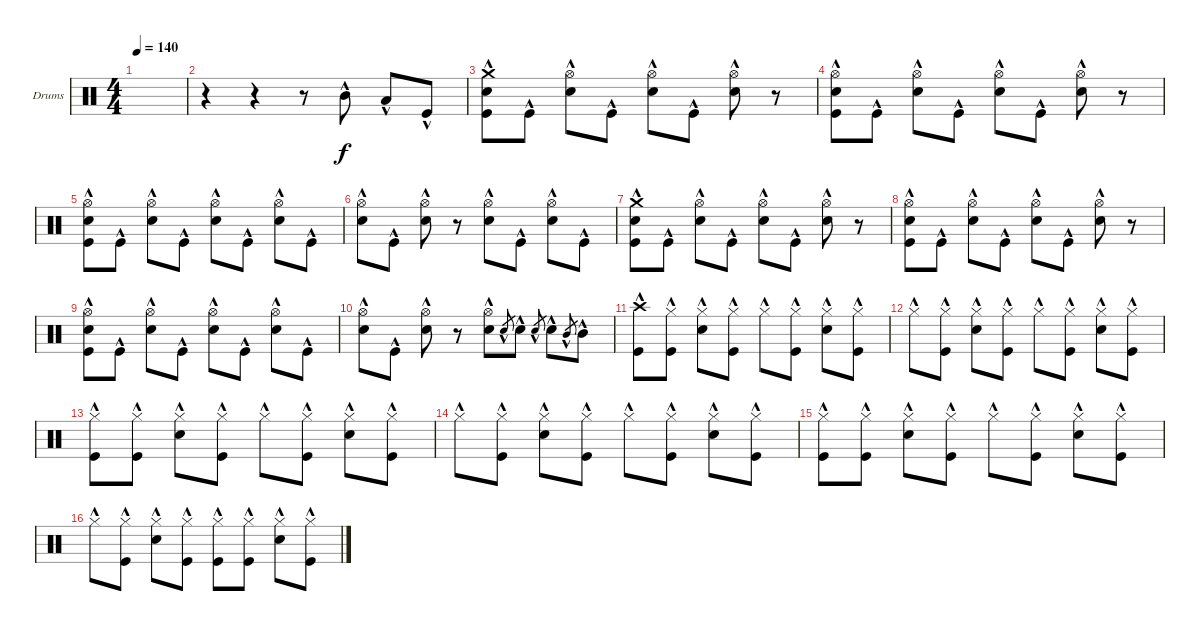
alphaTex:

\defaultSystemsLayout 4
\bracketExtendMode groupsimilarinstruments
\firstSystemTrackNameOrientation horizontal
\otherSystemsTrackNameOrientation horizontal
\track ("Drumkit" "Drums") {instrument percussion}
\staff {score}
\articulation defaults
\ts (4 4)
\tempo 140
\clef neutral
\ks c
|
r.4 r.4 r.8 "Mid Tom (hit)"{hac}.8 "Low Tom (hit)"{hac}.8 "Kick (hit)"{hac}.8 |
("Kick (hit)"{hac} "Snare (hit) 2"{hac} "Crash medium (hit)"{hac}).8 "Kick (hit)"{hac}.8 ("Snare (hit) 2"{hac} "Hi-Hat (open)"{hac}).8 "Kick (hit)"{hac}.8 ("Snare (hit) 2"{hac} "Hi-Hat (open)"{hac}).8 "Kick (hit)"{hac}.8 ("Snare (hit) 2"{hac} "Hi-Hat (open)"{hac}).8 r.8 |
("Kick (hit)"{hac} "Snare (hit) 2"{hac} "Hi-Hat (open)"{hac}).8 "Kick (hit)"{hac}.8 ("Snare (hit) 2"{hac} "Hi-Hat (open)"{hac}).8 "Kick (hit)"{hac}.8 ("Snare (hit) 2"{hac} "Hi-Hat (open)"{hac}).8 "Kick (hit)"{hac}.8 ("Snare (hit) 2"{hac} "Hi-Hat (open)"{hac}).8 r.8 |
("Kick (hit)"{hac} "Snare (hit) 2"{hac} "Hi-Hat (open)"{hac}).8 "Kick (hit)"{hac}.8 ("Snare (hit) 2"{hac} "Hi-Hat (open)"{hac}).8 "Kick (hit)"{hac}.8 ("Snare (hit) 2"{hac} "Hi-Hat (open)"{hac}).8 "Kick (hit)"{hac}.8 ("Snare (hit) 2"{hac} "Hi-Hat (open)"{hac}).8 "Kick (hit)"{hac}.8 |
("Snare (hit) 2"{hac} "Hi-Hat (open)"{hac}).8 "Kick (hit)"{hac}.8 ("Snare (hit) 2"{hac} "Hi-Hat (open)"{hac}).8 r.8 ("Snare (hit) 2"{hac} "Hi-Hat (open)"{hac}).8 "Kick (hit)"{hac}.8 ("Snare (hit) 2"{hac} "Hi-Hat (open)"{hac}).8 "Kick (hit)"{hac}.8 |
("Kick (hit)"{hac} "Snare (hit) 2"{hac} "Crash medium (hit)"{hac}).8 "Kick (hit)"{hac}.8 ("Snare (hit) 2"{hac} "Hi-Hat (open)"{hac}).8 "Kick (hit)"{hac}.8 ("Snare (hit) 2"{hac} "Hi-Hat (open)"{hac}).8 "Kick (hit)"{hac}.8 ("Snare (hit) 2"{hac} "Hi-Hat (open)"{hac}).8 r.8 |
("Kick (hit)"{hac} "Snare (hit) 2"{hac} "Hi-Hat (open)"{hac}).8 "Kick (hit)"{hac}.8 ("Snare (hit) 2"{hac} "Hi-Hat (open)"{hac}).8 "Kick (hit)"{hac}.8 ("Snare (hit) 2"{hac} "Hi-Hat (open)"{hac}).8 "Kick (hit)"{hac}.8 ("Snare (hit) 2"{hac} "Hi-Hat (open)"{hac}).8 r.8 |
("Kick (hit)"{hac} "Snare (hit) 2"{hac} "Hi-Hat (open)"{hac}).8 "Kick (hit)"{hac}.8 ("Snare (hit) 2"{hac} "Hi-Hat (open)"{hac}).8 "Kick (hit)"{hac}.8 ("Snare (hit) 2"{hac} "Hi-Hat (open)"{hac}).8 "Kick (hit)"{hac}.8 ("Snare (hit) 2"{hac} "Hi-Hat (open)"{hac}).8 "Kick (hit)"{hac}.8 |
("Snare (hit) 2"{hac} "Hi-Hat (open)"{hac}).8 "Kick (hit)"{hac}.8 ("Snare (hit) 2"{hac} "Hi-Hat (open)"{hac}).8 r.8 ("Hi-Hat (open)"{hac} "Snare (hit) 2"{hac}).8 "Snare (hit) 2"{hac}.8{gr} "Snare (hit) 2"{hac}.8 "Snare (hit) 2"{hac}.8{gr} "Snare (hit) 2"{hac}.8 "Mid Tom (hit)"{hac}.8{gr} "Mid Tom (hit)"{hac}.8 |
("Kick (hit)"{hac} "Crash high (hit)"{hac}).8 ("Hi-Hat (closed)"{hac} "Kick (hit)"{hac}).8 ("Hi-Hat (closed)"{hac} "Snare (hit) 2"{hac}).8 ("Hi-Hat (closed)"{hac} "Kick (hit)"{hac}).8 "Hi-Hat (closed)"{hac}.8 ("Hi-Hat (closed)"{hac} "Kick (hit)"{hac}).8 ("Hi-Hat (closed)"{hac} "Snare (hit) 2"{hac}).8 ("Hi-Hat (closed)"{hac} "Kick (hit)"{hac}).8 |
"Hi-Hat (closed)"{hac}.8 ("Hi-Hat (closed)"{hac} "Kick (hit)"{hac}).8 ("Hi-Hat (closed)"{hac} "Snare (hit) 2"{hac}).8 ("Hi-Hat (closed)"{hac} "Kick (hit)"{hac}).8 "Hi-Hat (closed)"{hac}.8 ("Hi-Hat (closed)"{hac} "Kick (hit)"{hac}).8 ("Hi-Hat (closed)"{hac} "Snare (hit) 2"{hac}).8 ("Hi-Hat (closed)"{hac} "Kick (hit)"{hac}).8 |
("Kick (hit)"{hac} "Hi-Hat (closed)"{hac}).8 ("Hi-Hat (closed)"{hac} "Kick (hit)"{hac}).8 ("Hi-Hat (closed)"{hac} "Snare (hit) 2"{hac}).8 ("Hi-Hat (closed)"{hac} "Kick (hit)"{hac}).8 "Hi-Hat (closed)"{hac}.8 ("Hi-Hat (closed)"{hac} "Kick (hit)"{hac}).8 ("Hi-Hat (closed)"{hac} "Snare (hit) 2"{hac}).8 ("Hi-Hat (closed)"{hac} "Kick (hit)"{hac}).8 |
"Hi-Hat (closed)"{hac}.8 ("Hi-Hat (closed)"{hac} "Kick (hit)"{hac}).8 ("Hi-Hat (closed)"{hac} "Snare (hit) 2"{hac}).8 ("Hi-Hat (closed)"{hac} "Kick (hit)"{hac}).8 "Hi-Hat (closed)"{hac}.8 ("Hi-Hat (closed)"{hac} "Kick (hit)"{hac}).8 ("Hi-Hat (closed)"{hac} "Snare (hit) 2"{hac}).8 ("Hi-Hat (closed)"{hac} "Kick (hit)"{hac}).8 |
("Kick (hit)"{hac} "Hi-Hat (closed)"{hac}).8 ("Hi-Hat (closed)"{hac} "Kick (hit)"{hac}).8 ("Hi-Hat (closed)"{hac} "Snare (hit) 2"{hac}).8 ("Hi-Hat (closed)"{hac} "Kick (hit)"{hac}).8 "Hi-Hat (closed)"{hac}.8 ("Hi-Hat (closed)"{hac} "Kick (hit)"{hac}).8 ("Hi-Hat (closed)"{hac} "Snare (hit) 2"{hac}).8 ("Hi-Hat (closed)"{hac} "Kick (hit)"{hac}).8 |
"Hi-Hat (closed)"{hac}.8 ("Hi-Hat (closed)"{hac} "Kick (hit)"{hac}).8 ("Hi-Hat (closed)"{hac} "Snare (hit) 2"{hac}).8 ("Hi-Hat (closed)"{hac} "Kick (hit)"{hac}).8 ("Hi-Hat (closed)"{hac} "Kick (hit)"{hac}).8 ("Hi-Hat (closed)"{hac} "Kick (hit)"{hac}).8 ("Hi-Hat (closed)"{hac} "Snare (hit) 2"{hac}).8 ("Hi-Hat (closed)"{hac} "Kick (hit)"{hac}).8
